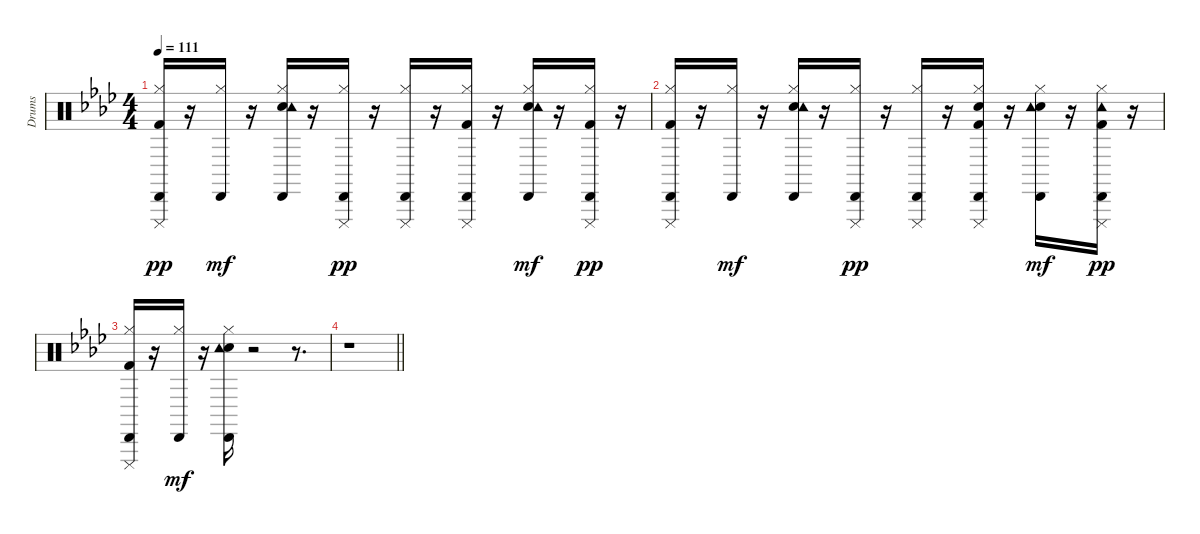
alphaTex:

\track ("Drums" "Drums") {instrument percussion}
\staff {score}
\articulation defaults
\ts (4 4)
\tempo 111
\clef neutral
\ks ab
("Kick (hit) 2" "Hi-Hat (closed)" "Cabasa (hit)" "Cuica (mute)").16{dy pp} r.16 ("Hi-Hat (closed)" "Cabasa (hit)").16{dy mf} r.16 ("Electric Snare (hit)" "Hi-Hat (closed)" "Tambourine (hit)" "Cabasa (hit)").16 r.16 ("Hi-Hat (closed)" "Cabasa (hit)" "Cuica (mute)").16{dy pp} r.16 ("Hi-Hat (closed)" "Cabasa (hit)" "Cuica (mute)").16 r.16 ("Kick (hit) 2" "Hi-Hat (closed)" "Cabasa (hit)" "Cuica (mute)").16 r.16 ("Electric Snare (hit)" "Hi-Hat (closed)" "Tambourine (hit)" "Cabasa (hit)").16{dy mf} r.16 ("Kick (hit) 2" "Hi-Hat (closed)" "Cabasa (hit)" "Cuica (mute)").16{dy pp} r.16 |
("Kick (hit) 2" "Hi-Hat (closed)" "Cabasa (hit)" "Cuica (mute)").16 r.16 ("Hi-Hat (closed)" "Cabasa (hit)").16{dy mf} r.16 ("Electric Snare (hit)" "Hi-Hat (closed)" "Tambourine (hit)" "Cabasa (hit)").16 r.16 ("Hi-Hat (closed)" "Cabasa (hit)" "Cuica (mute)").16{dy pp} r.16 ("Hi-Hat (closed)" "Cabasa (hit)" "Cuica (mute)").16 r.16 ("Kick (hit) 2" "Electric Snare (hit)" "Hi-Hat (closed)" "Cabasa (hit)" "Cuica (mute)").16 r.16 ("Electric Snare (hit)" "Hi-Hat (closed)" "Tambourine (hit)" "Cabasa (hit)").16{dy mf} r.16 ("Kick (hit) 2" "Hi-Hat (closed)" "Tambourine (hit)" "Cabasa (hit)" "Cuica (mute)").16{dy pp} r.16 |
("Kick (hit) 2" "Hi-Hat (closed)" "Cabasa (hit)" "Cuica (mute)").16 r.16 ("Hi-Hat (closed)" "Cabasa (hit)").16{dy mf} r.16 ("Electric Snare (hit)" "Hi-Hat (closed)" "Tambourine (hit)" "Cabasa (hit)").16 r.2 r.8{d} |
\barLineRight lightlight
r.1
